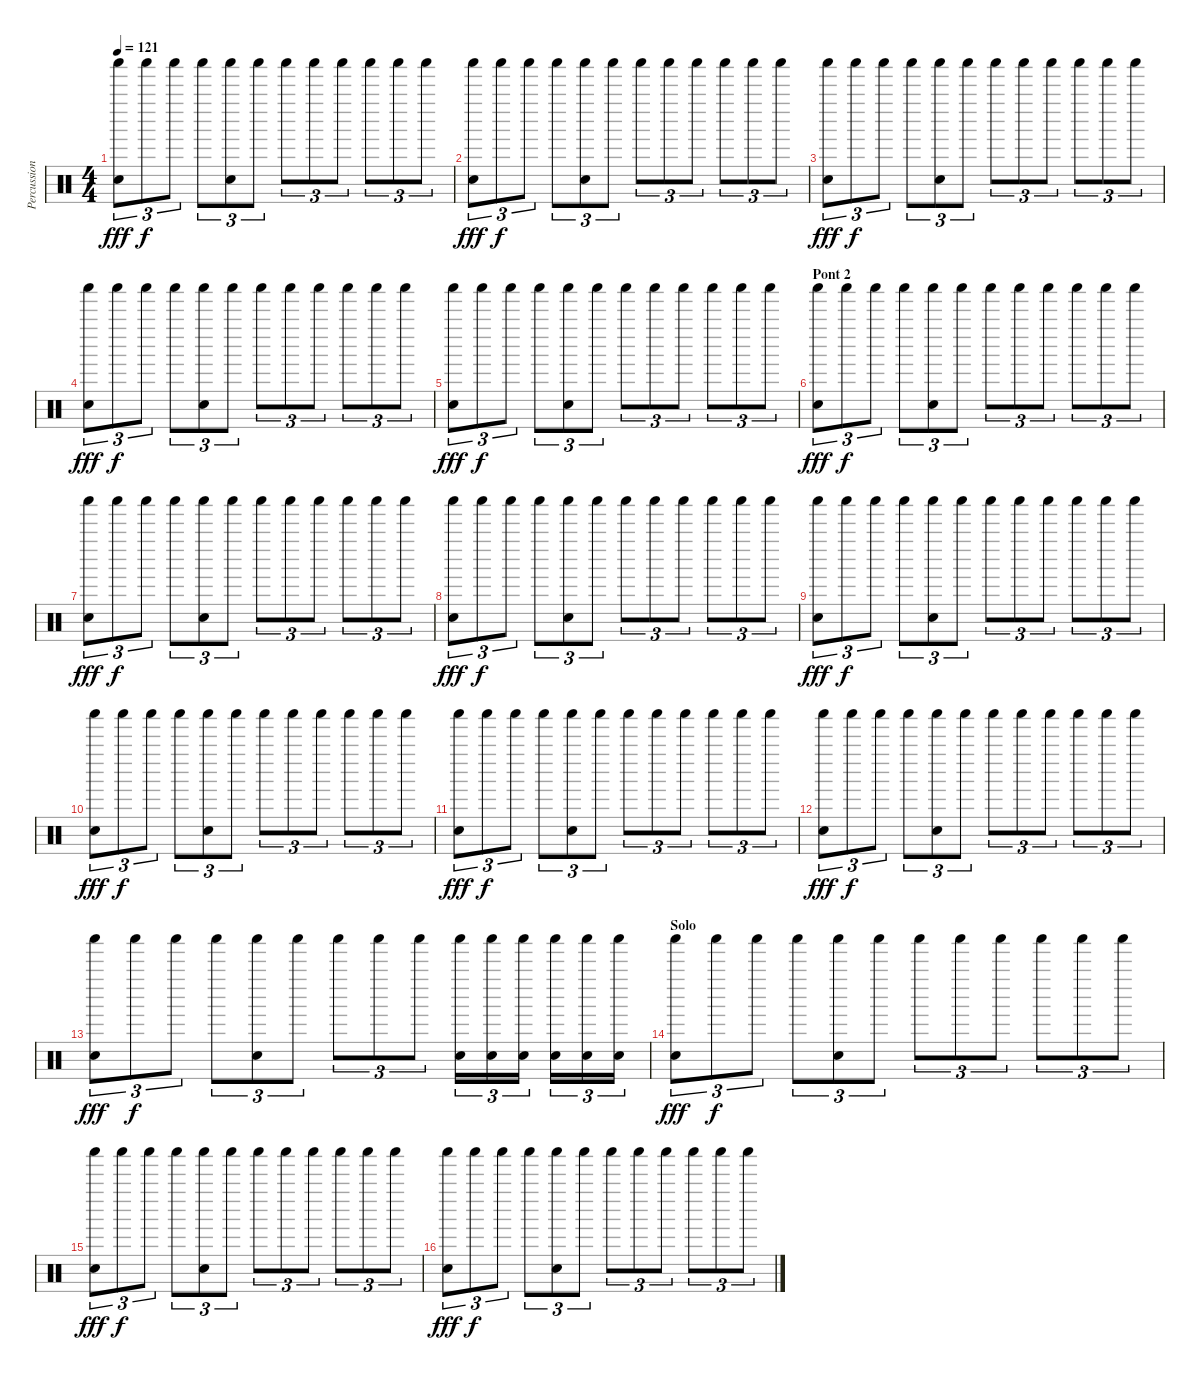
\track ("Percussions" "Percussion") {instrument percussion}
\staff {score}
\articulation defaults
\ts (4 4)
\tempo 121
\clef neutral
\ks c
("Shaker (hit)" "Electric Snare (hit)").8{tu (3 2) dy fff} "Shaker (hit)".8{tu (3 2) dy f} "Shaker (hit)".8{tu (3 2)} "Shaker (hit)".8{tu (3 2)} ("Shaker (hit)" "Electric Snare (hit)").8{tu (3 2)} "Shaker (hit)".8{tu (3 2)} "Shaker (hit)".8{tu (3 2)} "Shaker (hit)".8{tu (3 2)} "Shaker (hit)".8{tu (3 2)} "Shaker (hit)".8{tu (3 2)} "Shaker (hit)".8{tu (3 2)} "Shaker (hit)".8{tu (3 2)} |
("Shaker (hit)" "Electric Snare (hit)").8{tu (3 2) dy fff} "Shaker (hit)".8{tu (3 2) dy f} "Shaker (hit)".8{tu (3 2)} "Shaker (hit)".8{tu (3 2)} ("Shaker (hit)" "Electric Snare (hit)").8{tu (3 2)} "Shaker (hit)".8{tu (3 2)} "Shaker (hit)".8{tu (3 2)} "Shaker (hit)".8{tu (3 2)} "Shaker (hit)".8{tu (3 2)} "Shaker (hit)".8{tu (3 2)} "Shaker (hit)".8{tu (3 2)} "Shaker (hit)".8{tu (3 2)} |
("Shaker (hit)" "Electric Snare (hit)").8{tu (3 2) dy fff} "Shaker (hit)".8{tu (3 2) dy f} "Shaker (hit)".8{tu (3 2)} "Shaker (hit)".8{tu (3 2)} ("Shaker (hit)" "Electric Snare (hit)").8{tu (3 2)} "Shaker (hit)".8{tu (3 2)} "Shaker (hit)".8{tu (3 2)} "Shaker (hit)".8{tu (3 2)} "Shaker (hit)".8{tu (3 2)} "Shaker (hit)".8{tu (3 2)} "Shaker (hit)".8{tu (3 2)} "Shaker (hit)".8{tu (3 2)} |
("Shaker (hit)" "Electric Snare (hit)").8{tu (3 2) dy fff} "Shaker (hit)".8{tu (3 2) dy f} "Shaker (hit)".8{tu (3 2)} "Shaker (hit)".8{tu (3 2)} ("Shaker (hit)" "Electric Snare (hit)").8{tu (3 2)} "Shaker (hit)".8{tu (3 2)} "Shaker (hit)".8{tu (3 2)} "Shaker (hit)".8{tu (3 2)} "Shaker (hit)".8{tu (3 2)} "Shaker (hit)".8{tu (3 2)} "Shaker (hit)".8{tu (3 2)} "Shaker (hit)".8{tu (3 2)} |
("Shaker (hit)" "Electric Snare (hit)").8{tu (3 2) dy fff} "Shaker (hit)".8{tu (3 2) dy f} "Shaker (hit)".8{tu (3 2)} "Shaker (hit)".8{tu (3 2)} ("Shaker (hit)" "Electric Snare (hit)").8{tu (3 2)} "Shaker (hit)".8{tu (3 2)} "Shaker (hit)".8{tu (3 2)} "Shaker (hit)".8{tu (3 2)} "Shaker (hit)".8{tu (3 2)} "Shaker (hit)".8{tu (3 2)} "Shaker (hit)".8{tu (3 2)} "Shaker (hit)".8{tu (3 2)} |
\section ("" "Pont 2")
("Shaker (hit)" "Electric Snare (hit)").8{tu (3 2) dy fff} "Shaker (hit)".8{tu (3 2) dy f} "Shaker (hit)".8{tu (3 2)} "Shaker (hit)".8{tu (3 2)} ("Shaker (hit)" "Electric Snare (hit)").8{tu (3 2)} "Shaker (hit)".8{tu (3 2)} "Shaker (hit)".8{tu (3 2)} "Shaker (hit)".8{tu (3 2)} "Shaker (hit)".8{tu (3 2)} "Shaker (hit)".8{tu (3 2)} "Shaker (hit)".8{tu (3 2)} "Shaker (hit)".8{tu (3 2)} |
("Shaker (hit)" "Electric Snare (hit)").8{tu (3 2) dy fff} "Shaker (hit)".8{tu (3 2) dy f} "Shaker (hit)".8{tu (3 2)} "Shaker (hit)".8{tu (3 2)} ("Shaker (hit)" "Electric Snare (hit)").8{tu (3 2)} "Shaker (hit)".8{tu (3 2)} "Shaker (hit)".8{tu (3 2)} "Shaker (hit)".8{tu (3 2)} "Shaker (hit)".8{tu (3 2)} "Shaker (hit)".8{tu (3 2)} "Shaker (hit)".8{tu (3 2)} "Shaker (hit)".8{tu (3 2)} |
("Shaker (hit)" "Electric Snare (hit)").8{tu (3 2) dy fff} "Shaker (hit)".8{tu (3 2) dy f} "Shaker (hit)".8{tu (3 2)} "Shaker (hit)".8{tu (3 2)} ("Shaker (hit)" "Electric Snare (hit)").8{tu (3 2)} "Shaker (hit)".8{tu (3 2)} "Shaker (hit)".8{tu (3 2)} "Shaker (hit)".8{tu (3 2)} "Shaker (hit)".8{tu (3 2)} "Shaker (hit)".8{tu (3 2)} "Shaker (hit)".8{tu (3 2)} "Shaker (hit)".8{tu (3 2)} |
("Shaker (hit)" "Electric Snare (hit)").8{tu (3 2) dy fff} "Shaker (hit)".8{tu (3 2) dy f} "Shaker (hit)".8{tu (3 2)} "Shaker (hit)".8{tu (3 2)} ("Shaker (hit)" "Electric Snare (hit)").8{tu (3 2)} "Shaker (hit)".8{tu (3 2)} "Shaker (hit)".8{tu (3 2)} "Shaker (hit)".8{tu (3 2)} "Shaker (hit)".8{tu (3 2)} "Shaker (hit)".8{tu (3 2)} "Shaker (hit)".8{tu (3 2)} "Shaker (hit)".8{tu (3 2)} |
("Shaker (hit)" "Electric Snare (hit)").8{tu (3 2) dy fff} "Shaker (hit)".8{tu (3 2) dy f} "Shaker (hit)".8{tu (3 2)} "Shaker (hit)".8{tu (3 2)} ("Shaker (hit)" "Electric Snare (hit)").8{tu (3 2)} "Shaker (hit)".8{tu (3 2)} "Shaker (hit)".8{tu (3 2)} "Shaker (hit)".8{tu (3 2)} "Shaker (hit)".8{tu (3 2)} "Shaker (hit)".8{tu (3 2)} "Shaker (hit)".8{tu (3 2)} "Shaker (hit)".8{tu (3 2)} |
("Shaker (hit)" "Electric Snare (hit)").8{tu (3 2) dy fff} "Shaker (hit)".8{tu (3 2) dy f} "Shaker (hit)".8{tu (3 2)} "Shaker (hit)".8{tu (3 2)} ("Shaker (hit)" "Electric Snare (hit)").8{tu (3 2)} "Shaker (hit)".8{tu (3 2)} "Shaker (hit)".8{tu (3 2)} "Shaker (hit)".8{tu (3 2)} "Shaker (hit)".8{tu (3 2)} "Shaker (hit)".8{tu (3 2)} "Shaker (hit)".8{tu (3 2)} "Shaker (hit)".8{tu (3 2)} |
("Shaker (hit)" "Electric Snare (hit)").8{tu (3 2) dy fff} "Shaker (hit)".8{tu (3 2) dy f} "Shaker (hit)".8{tu (3 2)} "Shaker (hit)".8{tu (3 2)} ("Shaker (hit)" "Electric Snare (hit)").8{tu (3 2)} "Shaker (hit)".8{tu (3 2)} "Shaker (hit)".8{tu (3 2)} "Shaker (hit)".8{tu (3 2)} "Shaker (hit)".8{tu (3 2)} "Shaker (hit)".8{tu (3 2)} "Shaker (hit)".8{tu (3 2)} "Shaker (hit)".8{tu (3 2)} |
("Shaker (hit)" "Electric Snare (hit)").8{tu (3 2) dy fff} "Shaker (hit)".8{tu (3 2) dy f} "Shaker (hit)".8{tu (3 2)} "Shaker (hit)".8{tu (3 2)} ("Shaker (hit)" "Electric Snare (hit)").8{tu (3 2)} "Shaker (hit)".8{tu (3 2)} "Shaker (hit)".8{tu (3 2)} "Shaker (hit)".8{tu (3 2)} "Shaker (hit)".8{tu (3 2)} ("Shaker (hit)" "Electric Snare (hit)").16{tu (3 2)} ("Shaker (hit)" "Electric Snare (hit)").16{tu (3 2)} ("Shaker (hit)" "Electric Snare (hit)").16{tu (3 2)} ("Shaker (hit)" "Electric Snare (hit)").16{tu (3 2)} ("Shaker (hit)" "Electric Snare (hit)").16{tu (3 2)} ("Shaker (hit)" "Electric Snare (hit)").16{tu (3 2)} |
\section ("" "Solo")
("Shaker (hit)" "Electric Snare (hit)").8{tu (3 2) dy fff} "Shaker (hit)".8{tu (3 2) dy f} "Shaker (hit)".8{tu (3 2)} "Shaker (hit)".8{tu (3 2)} ("Shaker (hit)" "Electric Snare (hit)").8{tu (3 2)} "Shaker (hit)".8{tu (3 2)} "Shaker (hit)".8{tu (3 2)} "Shaker (hit)".8{tu (3 2)} "Shaker (hit)".8{tu (3 2)} "Shaker (hit)".8{tu (3 2)} "Shaker (hit)".8{tu (3 2)} "Shaker (hit)".8{tu (3 2)} |
("Shaker (hit)" "Electric Snare (hit)").8{tu (3 2) dy fff} "Shaker (hit)".8{tu (3 2) dy f} "Shaker (hit)".8{tu (3 2)} "Shaker (hit)".8{tu (3 2)} ("Shaker (hit)" "Electric Snare (hit)").8{tu (3 2)} "Shaker (hit)".8{tu (3 2)} "Shaker (hit)".8{tu (3 2)} "Shaker (hit)".8{tu (3 2)} "Shaker (hit)".8{tu (3 2)} "Shaker (hit)".8{tu (3 2)} "Shaker (hit)".8{tu (3 2)} "Shaker (hit)".8{tu (3 2)} |
("Shaker (hit)" "Electric Snare (hit)").8{tu (3 2) dy fff} "Shaker (hit)".8{tu (3 2) dy f} "Shaker (hit)".8{tu (3 2)} "Shaker (hit)".8{tu (3 2)} ("Shaker (hit)" "Electric Snare (hit)").8{tu (3 2)} "Shaker (hit)".8{tu (3 2)} "Shaker (hit)".8{tu (3 2)} "Shaker (hit)".8{tu (3 2)} "Shaker (hit)".8{tu (3 2)} "Shaker (hit)".8{tu (3 2)} "Shaker (hit)".8{tu (3 2)} "Shaker (hit)".8{tu (3 2)}
